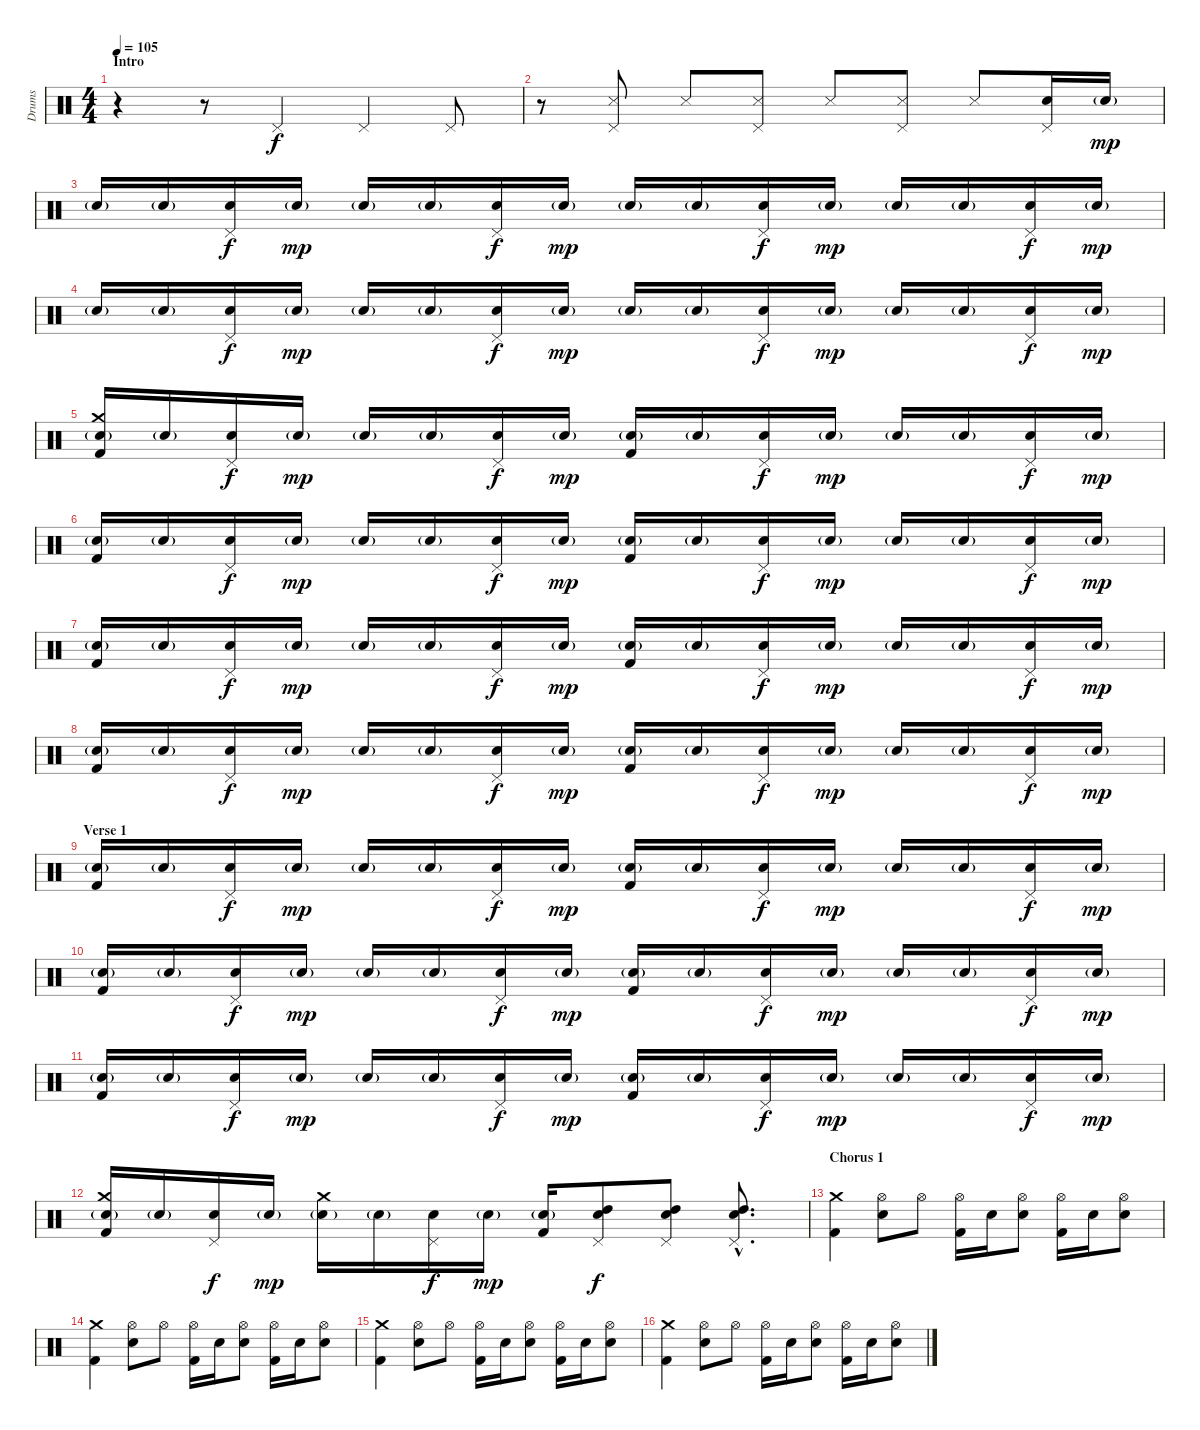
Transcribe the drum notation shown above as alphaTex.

\track ("Drums" "Drums") {instrument percussion}
\staff {score}
\articulation defaults
\ts (4 4)
\section ("" "Intro")
\tempo 105
\clef neutral
\ks c
r.4{dy f} r.8 "Pedal Hi-Hat (hit)".4 "Pedal Hi-Hat (hit)".4 "Pedal Hi-Hat (hit)".8 |
r.8 ("Pedal Hi-Hat (hit)" "Snare (side stick) 3").8 "Snare (side stick) 3".8 ("Pedal Hi-Hat (hit)" "Snare (side stick) 3").8 "Snare (side stick) 3".8 ("Pedal Hi-Hat (hit)" "Snare (side stick) 3").8 "Snare (side stick) 3".8 ("Pedal Hi-Hat (hit)" "Snare (hit) 2").16 "Snare (hit) 2"{g}.16{dy mp} |
"Snare (hit) 2"{g}.16 "Snare (hit) 2"{g}.16 ("Pedal Hi-Hat (hit)" "Snare (hit) 2").16{dy f} "Snare (hit) 2"{g}.16{dy mp} "Snare (hit) 2"{g}.16 "Snare (hit) 2"{g}.16 ("Pedal Hi-Hat (hit)" "Snare (hit) 2").16{dy f} "Snare (hit) 2"{g}.16{dy mp} "Snare (hit) 2"{g}.16 "Snare (hit) 2"{g}.16 ("Pedal Hi-Hat (hit)" "Snare (hit) 2").16{dy f} "Snare (hit) 2"{g}.16{dy mp} "Snare (hit) 2"{g}.16 "Snare (hit) 2"{g}.16 ("Pedal Hi-Hat (hit)" "Snare (hit) 2").16{dy f} "Snare (hit) 2"{g}.16{dy mp} |
"Snare (hit) 2"{g}.16 "Snare (hit) 2"{g}.16 ("Pedal Hi-Hat (hit)" "Snare (hit) 2").16{dy f} "Snare (hit) 2"{g}.16{dy mp} "Snare (hit) 2"{g}.16 "Snare (hit) 2"{g}.16 ("Pedal Hi-Hat (hit)" "Snare (hit) 2").16{dy f} "Snare (hit) 2"{g}.16{dy mp} "Snare (hit) 2"{g}.16 "Snare (hit) 2"{g}.16 ("Pedal Hi-Hat (hit)" "Snare (hit) 2").16{dy f} "Snare (hit) 2"{g}.16{dy mp} "Snare (hit) 2"{g}.16 "Snare (hit) 2"{g}.16 ("Pedal Hi-Hat (hit)" "Snare (hit) 2").16{dy f} "Snare (hit) 2"{g}.16{dy mp} |
("Crash medium (hit)" "Snare (hit) 2"{g} "Kick (hit) 2").16 "Snare (hit) 2"{g}.16 ("Pedal Hi-Hat (hit)" "Snare (hit) 2").16{dy f} "Snare (hit) 2"{g}.16{dy mp} "Snare (hit) 2"{g}.16 "Snare (hit) 2"{g}.16 ("Pedal Hi-Hat (hit)" "Snare (hit) 2").16{dy f} "Snare (hit) 2"{g}.16{dy mp} ("Snare (hit) 2"{g} "Kick (hit) 2").16 "Snare (hit) 2"{g}.16 ("Pedal Hi-Hat (hit)" "Snare (hit) 2").16{dy f} "Snare (hit) 2"{g}.16{dy mp} "Snare (hit) 2"{g}.16 "Snare (hit) 2"{g}.16 ("Pedal Hi-Hat (hit)" "Snare (hit) 2").16{dy f} "Snare (hit) 2"{g}.16{dy mp} |
("Snare (hit) 2"{g} "Kick (hit) 2").16 "Snare (hit) 2"{g}.16 ("Pedal Hi-Hat (hit)" "Snare (hit) 2").16{dy f} "Snare (hit) 2"{g}.16{dy mp} "Snare (hit) 2"{g}.16 "Snare (hit) 2"{g}.16 ("Pedal Hi-Hat (hit)" "Snare (hit) 2").16{dy f} "Snare (hit) 2"{g}.16{dy mp} ("Snare (hit) 2"{g} "Kick (hit) 2").16 "Snare (hit) 2"{g}.16 ("Pedal Hi-Hat (hit)" "Snare (hit) 2").16{dy f} "Snare (hit) 2"{g}.16{dy mp} "Snare (hit) 2"{g}.16 "Snare (hit) 2"{g}.16 ("Pedal Hi-Hat (hit)" "Snare (hit) 2").16{dy f} "Snare (hit) 2"{g}.16{dy mp} |
("Snare (hit) 2"{g} "Kick (hit) 2").16 "Snare (hit) 2"{g}.16 ("Pedal Hi-Hat (hit)" "Snare (hit) 2").16{dy f} "Snare (hit) 2"{g}.16{dy mp} "Snare (hit) 2"{g}.16 "Snare (hit) 2"{g}.16 ("Pedal Hi-Hat (hit)" "Snare (hit) 2").16{dy f} "Snare (hit) 2"{g}.16{dy mp} ("Snare (hit) 2"{g} "Kick (hit) 2").16 "Snare (hit) 2"{g}.16 ("Pedal Hi-Hat (hit)" "Snare (hit) 2").16{dy f} "Snare (hit) 2"{g}.16{dy mp} "Snare (hit) 2"{g}.16 "Snare (hit) 2"{g}.16 ("Pedal Hi-Hat (hit)" "Snare (hit) 2").16{dy f} "Snare (hit) 2"{g}.16{dy mp} |
("Snare (hit) 2"{g} "Kick (hit) 2").16 "Snare (hit) 2"{g}.16 ("Pedal Hi-Hat (hit)" "Snare (hit) 2").16{dy f} "Snare (hit) 2"{g}.16{dy mp} "Snare (hit) 2"{g}.16 "Snare (hit) 2"{g}.16 ("Pedal Hi-Hat (hit)" "Snare (hit) 2").16{dy f} "Snare (hit) 2"{g}.16{dy mp} ("Snare (hit) 2"{g} "Kick (hit) 2").16 "Snare (hit) 2"{g}.16 ("Pedal Hi-Hat (hit)" "Snare (hit) 2").16{dy f} "Snare (hit) 2"{g}.16{dy mp} "Snare (hit) 2"{g}.16 "Snare (hit) 2"{g}.16 ("Pedal Hi-Hat (hit)" "Snare (hit) 2").16{dy f} "Snare (hit) 2"{g}.16{dy mp} |
\section ("" "Verse 1")
("Snare (hit) 2"{g} "Kick (hit) 2").16 "Snare (hit) 2"{g}.16 ("Pedal Hi-Hat (hit)" "Snare (hit) 2").16{dy f} "Snare (hit) 2"{g}.16{dy mp} "Snare (hit) 2"{g}.16 "Snare (hit) 2"{g}.16 ("Pedal Hi-Hat (hit)" "Snare (hit) 2").16{dy f} "Snare (hit) 2"{g}.16{dy mp} ("Snare (hit) 2"{g} "Kick (hit) 2").16 "Snare (hit) 2"{g}.16 ("Pedal Hi-Hat (hit)" "Snare (hit) 2").16{dy f} "Snare (hit) 2"{g}.16{dy mp} "Snare (hit) 2"{g}.16 "Snare (hit) 2"{g}.16 ("Pedal Hi-Hat (hit)" "Snare (hit) 2").16{dy f} "Snare (hit) 2"{g}.16{dy mp} |
("Snare (hit) 2"{g} "Kick (hit) 2").16 "Snare (hit) 2"{g}.16 ("Pedal Hi-Hat (hit)" "Snare (hit) 2").16{dy f} "Snare (hit) 2"{g}.16{dy mp} "Snare (hit) 2"{g}.16 "Snare (hit) 2"{g}.16 ("Pedal Hi-Hat (hit)" "Snare (hit) 2").16{dy f} "Snare (hit) 2"{g}.16{dy mp} ("Snare (hit) 2"{g} "Kick (hit) 2").16 "Snare (hit) 2"{g}.16 ("Pedal Hi-Hat (hit)" "Snare (hit) 2").16{dy f} "Snare (hit) 2"{g}.16{dy mp} "Snare (hit) 2"{g}.16 "Snare (hit) 2"{g}.16 ("Pedal Hi-Hat (hit)" "Snare (hit) 2").16{dy f} "Snare (hit) 2"{g}.16{dy mp} |
("Snare (hit) 2"{g} "Kick (hit) 2").16 "Snare (hit) 2"{g}.16 ("Pedal Hi-Hat (hit)" "Snare (hit) 2").16{dy f} "Snare (hit) 2"{g}.16{dy mp} "Snare (hit) 2"{g}.16 "Snare (hit) 2"{g}.16 ("Pedal Hi-Hat (hit)" "Snare (hit) 2").16{dy f} "Snare (hit) 2"{g}.16{dy mp} ("Snare (hit) 2"{g} "Kick (hit) 2").16 "Snare (hit) 2"{g}.16 ("Pedal Hi-Hat (hit)" "Snare (hit) 2").16{dy f} "Snare (hit) 2"{g}.16{dy mp} "Snare (hit) 2"{g}.16 "Snare (hit) 2"{g}.16 ("Pedal Hi-Hat (hit)" "Snare (hit) 2").16{dy f} "Snare (hit) 2"{g}.16{dy mp} |
("Crash medium (hit)" "Snare (hit) 2"{g} "Kick (hit) 2").16 "Snare (hit) 2"{g}.16 ("Pedal Hi-Hat (hit)" "Snare (hit) 2").16{dy f} "Snare (hit) 2"{g}.16{dy mp} ("Crash medium (hit)" "Snare (hit) 2"{g}).16 "Snare (hit) 2"{g}.16 ("Pedal Hi-Hat (hit)" "Snare (hit) 2").16{dy f} "Snare (hit) 2"{g}.16{dy mp} ("Snare (hit) 2"{g} "Kick (hit) 2").16 ("Pedal Hi-Hat (hit)" "High Tom (hit)" "Snare (hit) 2").8{dy f} ("Pedal Hi-Hat (hit)" "High Tom (hit)" "Snare (hit) 2").8 ("Pedal Hi-Hat (hit)"{hac} "High Tom (hit)"{hac} "Snare (hit) 2"{hac}).8{d} |
\section ("" "Chorus 1")
("Crash medium (hit)" "Kick (hit) 2").4 ("Hi-Hat (open)" "Snare (hit) 2").8 "Hi-Hat (open)".8 ("Hi-Hat (open)" "Kick (hit) 2").16 "Snare (hit) 2".16 ("Hi-Hat (open)" "Snare (hit) 2").8 ("Hi-Hat (open)" "Kick (hit) 2").16 "Snare (hit) 2".16 ("Hi-Hat (open)" "Snare (hit) 2").8 |
("Crash medium (hit)" "Kick (hit) 2").4 ("Hi-Hat (open)" "Snare (hit) 2").8 "Hi-Hat (open)".8 ("Hi-Hat (open)" "Kick (hit) 2").16 "Snare (hit) 2".16 ("Hi-Hat (open)" "Snare (hit) 2").8 ("Hi-Hat (open)" "Kick (hit) 2").16 "Snare (hit) 2".16 ("Hi-Hat (open)" "Snare (hit) 2").8 |
("Crash medium (hit)" "Kick (hit) 2").4 ("Hi-Hat (open)" "Snare (hit) 2").8 "Hi-Hat (open)".8 ("Hi-Hat (open)" "Kick (hit) 2").16 "Snare (hit) 2".16 ("Hi-Hat (open)" "Snare (hit) 2").8 ("Hi-Hat (open)" "Kick (hit) 2").16 "Snare (hit) 2".16 ("Hi-Hat (open)" "Snare (hit) 2").8 |
("Crash medium (hit)" "Kick (hit) 2").4 ("Hi-Hat (open)" "Snare (hit) 2").8 "Hi-Hat (open)".8 ("Hi-Hat (open)" "Kick (hit) 2").16 "Snare (hit) 2".16 ("Hi-Hat (open)" "Snare (hit) 2").8 ("Hi-Hat (open)" "Kick (hit) 2").16 "Snare (hit) 2".16 ("Hi-Hat (open)" "Snare (hit) 2").8
